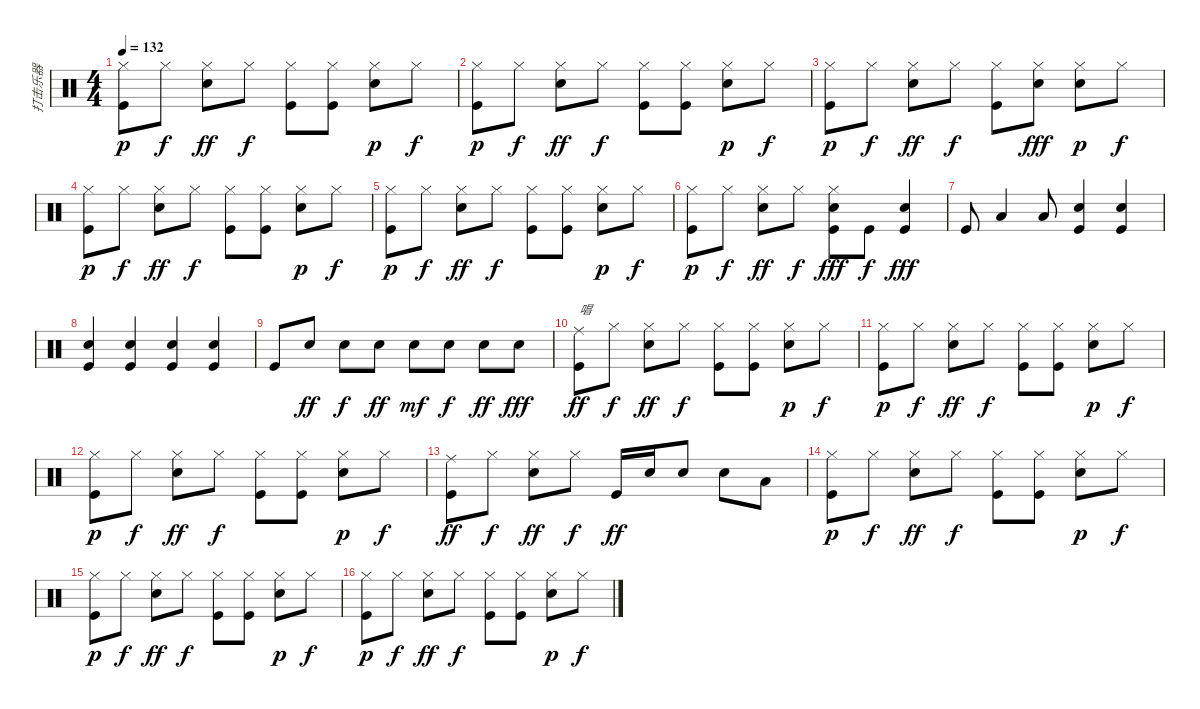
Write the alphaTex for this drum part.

\track ("打击乐器" "打击乐器") {instrument percussion}
\staff {score}
\articulation defaults
\ts (4 4)
\tempo 132
\clef neutral
\ks c
("Hi-Hat (closed)" "Kick (hit)").8{dy p} "Hi-Hat (closed)".8{dy f} ("Hi-Hat (closed)" "Snare (hit) 2").8{dy ff} "Hi-Hat (closed)".8{dy f} ("Hi-Hat (closed)" "Kick (hit)").8 ("Hi-Hat (closed)" "Kick (hit)").8 ("Hi-Hat (closed)" "Snare (hit) 2").8{dy p} "Hi-Hat (closed)".8{dy f} |
("Hi-Hat (closed)" "Kick (hit)").8{dy p} "Hi-Hat (closed)".8{dy f} ("Hi-Hat (closed)" "Snare (hit) 2").8{dy ff} "Hi-Hat (closed)".8{dy f} ("Hi-Hat (closed)" "Kick (hit)").8 ("Hi-Hat (closed)" "Kick (hit)").8 ("Hi-Hat (closed)" "Snare (hit) 2").8{dy p} "Hi-Hat (closed)".8{dy f} |
("Hi-Hat (closed)" "Kick (hit)").8{dy p} "Hi-Hat (closed)".8{dy f} ("Hi-Hat (closed)" "Snare (hit) 2").8{dy ff} "Hi-Hat (closed)".8{dy f} ("Hi-Hat (closed)" "Kick (hit)").8 ("Snare (hit) 2" "Hi-Hat (closed)").8{dy fff} ("Hi-Hat (closed)" "Snare (hit) 2").8{dy p} "Hi-Hat (closed)".8{dy f} |
("Hi-Hat (closed)" "Kick (hit)").8{dy p} "Hi-Hat (closed)".8{dy f} ("Hi-Hat (closed)" "Snare (hit) 2").8{dy ff} "Hi-Hat (closed)".8{dy f} ("Hi-Hat (closed)" "Kick (hit)").8 ("Hi-Hat (closed)" "Kick (hit)").8 ("Hi-Hat (closed)" "Snare (hit) 2").8{dy p} "Hi-Hat (closed)".8{dy f} |
("Hi-Hat (closed)" "Kick (hit)").8{dy p} "Hi-Hat (closed)".8{dy f} ("Hi-Hat (closed)" "Snare (hit) 2").8{dy ff} "Hi-Hat (closed)".8{dy f} ("Hi-Hat (closed)" "Kick (hit)").8 ("Hi-Hat (closed)" "Kick (hit)").8 ("Hi-Hat (closed)" "Snare (hit) 2").8{dy p} "Hi-Hat (closed)".8{dy f} |
("Hi-Hat (closed)" "Kick (hit)").8{dy p} "Hi-Hat (closed)".8{dy f} ("Hi-Hat (closed)" "Snare (hit) 2").8{dy ff} "Hi-Hat (closed)".8{dy f} ("Snare (hit) 2" "Hi-Hat (closed)" "Kick (hit)").8{dy fff} "Kick (hit)".8{dy f} ("Snare (hit) 2" "Kick (hit)").4{dy fff} |
"Kick (hit)".8 "Low Floor Tom (hit)".4 "Low Floor Tom (hit)".8 ("Snare (hit) 2" "Kick (hit)").4 ("Snare (hit) 2" "Kick (hit)").4 |
("Snare (hit) 2" "Kick (hit)").4 ("Snare (hit) 2" "Kick (hit)").4 ("Snare (hit) 2" "Kick (hit)").4 ("Snare (hit) 2" "Kick (hit)").4 |
"Kick (hit)".8 "Snare (hit) 2".8{dy ff} "Snare (hit) 2".8{dy f} "Snare (hit) 2".8{dy ff} "Snare (hit) 2".8{dy mf} "Snare (hit) 2".8{dy f} "Snare (hit) 2".8{dy ff} "Snare (hit) 2".8{dy fff} |
("Ride (middle)" "Kick (hit)").8{txt "唱" dy ff} "Hi-Hat (closed)".8{dy f} ("Hi-Hat (closed)" "Snare (hit) 2").8{dy ff} "Hi-Hat (closed)".8{dy f} ("Hi-Hat (closed)" "Kick (hit)").8 ("Hi-Hat (closed)" "Kick (hit)").8 ("Hi-Hat (closed)" "Snare (hit) 2").8{dy p} "Hi-Hat (closed)".8{dy f} |
("Hi-Hat (closed)" "Kick (hit)").8{dy p} "Hi-Hat (closed)".8{dy f} ("Hi-Hat (closed)" "Snare (hit) 2").8{dy ff} "Hi-Hat (closed)".8{dy f} ("Hi-Hat (closed)" "Kick (hit)").8 ("Hi-Hat (closed)" "Kick (hit)").8 ("Hi-Hat (closed)" "Snare (hit) 2").8{dy p} "Hi-Hat (closed)".8{dy f} |
("Hi-Hat (closed)" "Kick (hit)").8{dy p} "Hi-Hat (closed)".8{dy f} ("Hi-Hat (closed)" "Snare (hit) 2").8{dy ff} "Hi-Hat (closed)".8{dy f} ("Hi-Hat (closed)" "Kick (hit)").8 ("Hi-Hat (closed)" "Kick (hit)").8 ("Hi-Hat (closed)" "Snare (hit) 2").8{dy p} "Hi-Hat (closed)".8{dy f} |
("Ride (middle)" "Kick (hit)").8{dy ff} "Hi-Hat (closed)".8{dy f} ("Hi-Hat (closed)" "Snare (hit) 2").8{dy ff} "Hi-Hat (closed)".8{dy f} "Kick (hit)".16{dy ff} "Snare (hit) 2".16 "Snare (hit) 2".8 "Snare (hit) 2".8 "Low Tom (hit)".8 |
("Hi-Hat (closed)" "Kick (hit)").8{dy p} "Hi-Hat (closed)".8{dy f} ("Hi-Hat (closed)" "Snare (hit) 2").8{dy ff} "Hi-Hat (closed)".8{dy f} ("Hi-Hat (closed)" "Kick (hit)").8 ("Hi-Hat (closed)" "Kick (hit)").8 ("Hi-Hat (closed)" "Snare (hit) 2").8{dy p} "Hi-Hat (closed)".8{dy f} |
("Hi-Hat (closed)" "Kick (hit)").8{dy p} "Hi-Hat (closed)".8{dy f} ("Hi-Hat (closed)" "Snare (hit) 2").8{dy ff} "Hi-Hat (closed)".8{dy f} ("Hi-Hat (closed)" "Kick (hit)").8 ("Hi-Hat (closed)" "Kick (hit)").8 ("Hi-Hat (closed)" "Snare (hit) 2").8{dy p} "Hi-Hat (closed)".8{dy f} |
("Hi-Hat (closed)" "Kick (hit)").8{dy p} "Hi-Hat (closed)".8{dy f} ("Hi-Hat (closed)" "Snare (hit) 2").8{dy ff} "Hi-Hat (closed)".8{dy f} ("Hi-Hat (closed)" "Kick (hit)").8 ("Hi-Hat (closed)" "Kick (hit)").8 ("Hi-Hat (closed)" "Snare (hit) 2").8{dy p} "Hi-Hat (closed)".8{dy f}
